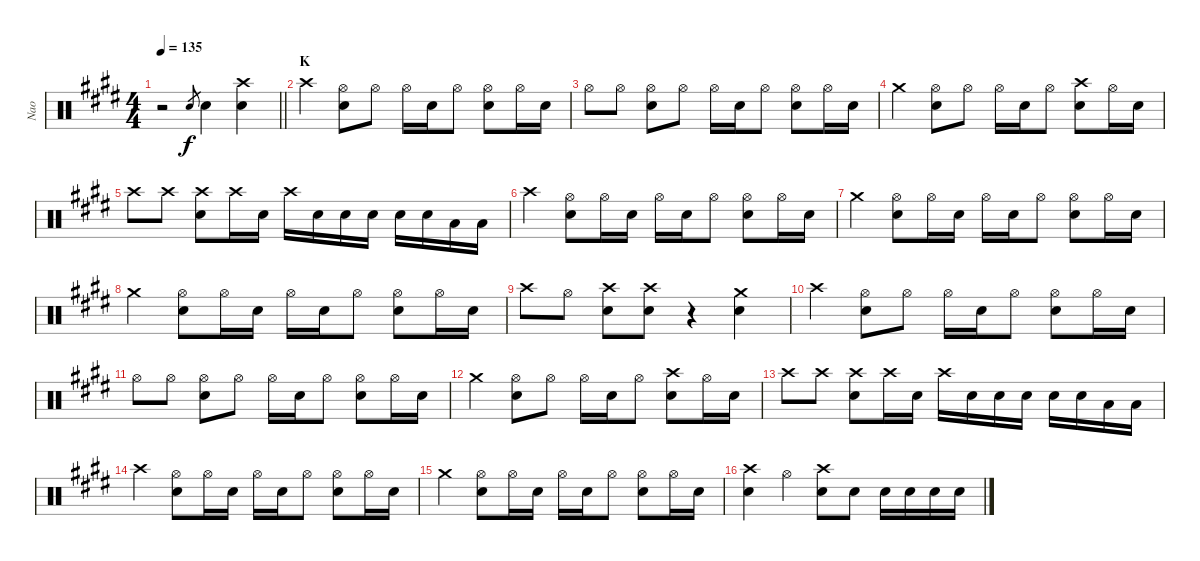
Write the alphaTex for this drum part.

\track ("Nao" "Nao") {instrument percussion}
\staff {score}
\articulation defaults
\ts (4 4)
\tempo 135
\clef neutral
\barLineRight lightlight
\ks e
r.2{dy f} "Snare (hit) 2".8{gr} "Snare (hit) 2".4 ("Crash high (hit)" "Snare (hit) 2").4 |
\section ("" "K")
"Crash high (hit)".4 ("Hi-Hat (open)" "Snare (hit) 2").8 "Hi-Hat (open)".8 "Hi-Hat (open)".16 "Snare (hit) 2".16 "Hi-Hat (open)".8 ("Hi-Hat (open)" "Snare (hit) 2").8 "Hi-Hat (open)".16 "Snare (hit) 2".16 |
"Hi-Hat (open)".8 "Hi-Hat (open)".8 ("Hi-Hat (open)" "Snare (hit) 2").8 "Hi-Hat (open)".8 "Hi-Hat (open)".16 "Snare (hit) 2".16 "Hi-Hat (open)".8 ("Hi-Hat (open)" "Snare (hit) 2").8 "Hi-Hat (open)".16 "Snare (hit) 2".16 |
"Crash medium (hit)".4 ("Hi-Hat (open)" "Snare (hit) 2").8 "Hi-Hat (open)".8 "Hi-Hat (open)".16 "Snare (hit) 2".16 "Hi-Hat (open)".8 ("Crash high (hit)" "Snare (hit) 2").8 "Hi-Hat (open)".16 "Snare (hit) 2".16 |
"Crash high (hit)".8 "Crash high (hit)".8 ("Crash high (hit)" "Snare (hit) 2").8 "Crash high (hit)".16 "Snare (hit) 2".16 "Crash high (hit)".16 "Snare (hit) 2".16 "Snare (hit) 2".16 "Snare (hit) 2".16 "Snare (hit) 2".16 "Snare (hit) 2".16 "Low Tom (hit)".16 "Low Tom (hit)".16 |
"Crash high (hit)".4 ("Hi-Hat (open)" "Snare (hit) 2").8 "Hi-Hat (open)".16 "Snare (hit) 2".16 "Hi-Hat (open)".16 "Snare (hit) 2".16 "Hi-Hat (open)".8 ("Hi-Hat (open)" "Snare (hit) 2").8 "Hi-Hat (open)".16 "Snare (hit) 2".16 |
"Crash medium (hit)".4 ("Hi-Hat (open)" "Snare (hit) 2").8 "Hi-Hat (open)".16 "Snare (hit) 2".16 "Hi-Hat (open)".16 "Snare (hit) 2".16 "Hi-Hat (open)".8 ("Hi-Hat (open)" "Snare (hit) 2").8 "Hi-Hat (open)".16 "Snare (hit) 2".16 |
"Crash medium (hit)".4 ("Hi-Hat (open)" "Snare (hit) 2").8 "Hi-Hat (open)".16 "Snare (hit) 2".16 "Hi-Hat (open)".16 "Snare (hit) 2".16 "Hi-Hat (open)".8 ("Hi-Hat (open)" "Snare (hit) 2").8 "Hi-Hat (open)".16 "Snare (hit) 2".16 |
"Crash high (hit)".8 "Hi-Hat (open)".8 ("Crash high (hit)" "Snare (hit) 2").8 ("Crash high (hit)" "Snare (hit) 2").8 r.4 ("Crash medium (hit)" "Snare (hit) 2").4 |
"Crash high (hit)".4 ("Hi-Hat (open)" "Snare (hit) 2").8 "Hi-Hat (open)".8 "Hi-Hat (open)".16 "Snare (hit) 2".16 "Hi-Hat (open)".8 ("Hi-Hat (open)" "Snare (hit) 2").8 "Hi-Hat (open)".16 "Snare (hit) 2".16 |
"Hi-Hat (open)".8 "Hi-Hat (open)".8 ("Hi-Hat (open)" "Snare (hit) 2").8 "Hi-Hat (open)".8 "Hi-Hat (open)".16 "Snare (hit) 2".16 "Hi-Hat (open)".8 ("Hi-Hat (open)" "Snare (hit) 2").8 "Hi-Hat (open)".16 "Snare (hit) 2".16 |
"Crash medium (hit)".4 ("Hi-Hat (open)" "Snare (hit) 2").8 "Hi-Hat (open)".8 "Hi-Hat (open)".16 "Snare (hit) 2".16 "Hi-Hat (open)".8 ("Crash high (hit)" "Snare (hit) 2").8 "Hi-Hat (open)".16 "Snare (hit) 2".16 |
"Crash high (hit)".8 "Crash high (hit)".8 ("Crash high (hit)" "Snare (hit) 2").8 "Crash high (hit)".16 "Snare (hit) 2".16 "Crash high (hit)".16 "Snare (hit) 2".16 "Snare (hit) 2".16 "Snare (hit) 2".16 "Snare (hit) 2".16 "Snare (hit) 2".16 "Low Tom (hit)".16 "Low Tom (hit)".16 |
"Crash high (hit)".4 ("Hi-Hat (open)" "Snare (hit) 2").8 "Hi-Hat (open)".16 "Snare (hit) 2".16 "Hi-Hat (open)".16 "Snare (hit) 2".16 "Hi-Hat (open)".8 ("Hi-Hat (open)" "Snare (hit) 2").8 "Hi-Hat (open)".16 "Snare (hit) 2".16 |
"Crash medium (hit)".4 ("Hi-Hat (open)" "Snare (hit) 2").8 "Hi-Hat (open)".16 "Snare (hit) 2".16 "Hi-Hat (open)".16 "Snare (hit) 2".16 "Hi-Hat (open)".8 ("Hi-Hat (open)" "Snare (hit) 2").8 "Hi-Hat (open)".16 "Snare (hit) 2".16 |
("Crash high (hit)" "Snare (hit) 2").4 "Hi-Hat (open)".4 ("Crash high (hit)" "Snare (hit) 2").8 "Snare (hit) 2".8 "Snare (hit) 2".16 "Snare (hit) 2".16 "Snare (hit) 2".16 "Snare (hit) 2".16
